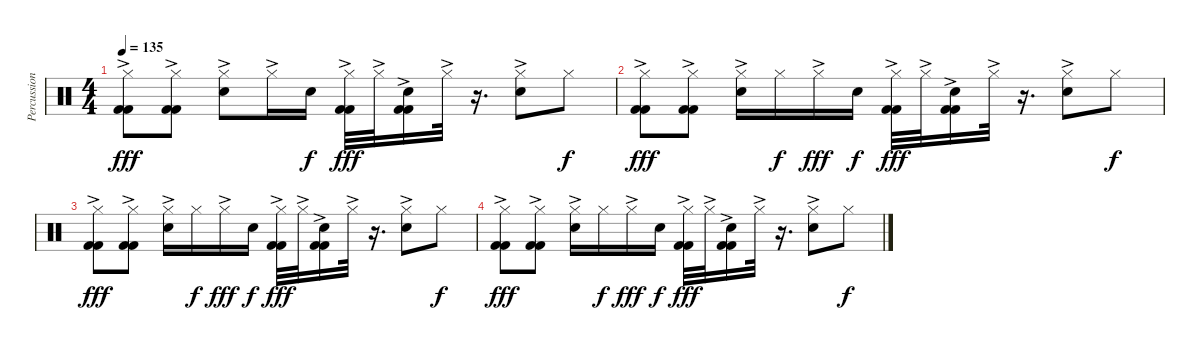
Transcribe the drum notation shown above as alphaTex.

\track ("Percussions" "Percussion") {instrument percussion}
\staff {score}
\articulation defaults
\ts (4 4)
\tempo 135
\clef neutral
\ks c
("Hi-Hat (closed)"{ac} "Kick (hit) 2"{ac} "Kick (hit) 2"{ac}).8{dy fff} ("Hi-Hat (closed)"{ac} "Kick (hit) 2"{ac} "Kick (hit) 2"{ac}).8 ("Hi-Hat (closed)" "Electric Snare (hit)"{ac}).8 "Hi-Hat (closed)"{ac}.16 "Electric Snare (hit)".16{dy f} ("Hi-Hat (closed)"{ac} "Kick (hit) 2"{ac} "Kick (hit) 2"{ac}).32{dy fff} "Hi-Hat (closed)"{ac}.32 ("Electric Snare (hit)"{ac} "Kick (hit) 2"{ac} "Kick (hit) 2"{ac}).16 "Hi-Hat (closed)"{ac}.32 r.16{d} ("Hi-Hat (closed)"{ac} "Electric Snare (hit)"{ac}).8 "Hi-Hat (closed)".8{dy f} |
("Hi-Hat (closed)"{ac} "Kick (hit) 2"{ac} "Kick (hit) 2"{ac}).8{dy fff} ("Hi-Hat (closed)"{ac} "Kick (hit) 2"{ac} "Kick (hit) 2"{ac}).8 ("Hi-Hat (closed)" "Electric Snare (hit)"{ac}).16 "Hi-Hat (closed)".16{dy f} "Hi-Hat (closed)"{ac}.16{dy fff} "Electric Snare (hit)".16{dy f} ("Hi-Hat (closed)"{ac} "Kick (hit) 2"{ac} "Kick (hit) 2"{ac}).32{dy fff} "Hi-Hat (closed)"{ac}.32 ("Electric Snare (hit)"{ac} "Kick (hit) 2"{ac} "Kick (hit) 2"{ac}).16 "Hi-Hat (closed)"{ac}.32 r.16{d} ("Hi-Hat (closed)"{ac} "Electric Snare (hit)"{ac}).8 "Hi-Hat (closed)".8{dy f} |
("Hi-Hat (closed)"{ac} "Kick (hit) 2"{ac} "Kick (hit) 2"{ac}).8{dy fff} ("Hi-Hat (closed)"{ac} "Kick (hit) 2"{ac} "Kick (hit) 2"{ac}).8 ("Hi-Hat (closed)" "Electric Snare (hit)"{ac}).16 "Hi-Hat (closed)".16{dy f} "Hi-Hat (closed)"{ac}.16{dy fff} "Electric Snare (hit)".16{dy f} ("Hi-Hat (closed)"{ac} "Kick (hit) 2"{ac} "Kick (hit) 2"{ac}).32{dy fff} "Hi-Hat (closed)"{ac}.32 ("Electric Snare (hit)"{ac} "Kick (hit) 2"{ac} "Kick (hit) 2"{ac}).16 "Hi-Hat (closed)"{ac}.32 r.16{d} ("Hi-Hat (closed)"{ac} "Electric Snare (hit)"{ac}).8 "Hi-Hat (closed)".8{dy f} |
("Hi-Hat (closed)"{ac} "Kick (hit) 2"{ac} "Kick (hit) 2"{ac}).8{dy fff} ("Hi-Hat (closed)"{ac} "Kick (hit) 2"{ac} "Kick (hit) 2"{ac}).8 ("Hi-Hat (closed)" "Electric Snare (hit)"{ac}).16 "Hi-Hat (closed)".16{dy f} "Hi-Hat (closed)"{ac}.16{dy fff} "Electric Snare (hit)".16{dy f} ("Hi-Hat (closed)"{ac} "Kick (hit) 2"{ac} "Kick (hit) 2"{ac}).32{dy fff} "Hi-Hat (closed)"{ac}.32 ("Electric Snare (hit)"{ac} "Kick (hit) 2"{ac} "Kick (hit) 2"{ac}).16 "Hi-Hat (closed)"{ac}.32 r.16{d} ("Hi-Hat (closed)"{ac} "Electric Snare (hit)"{ac}).8 "Hi-Hat (closed)".8{dy f}
